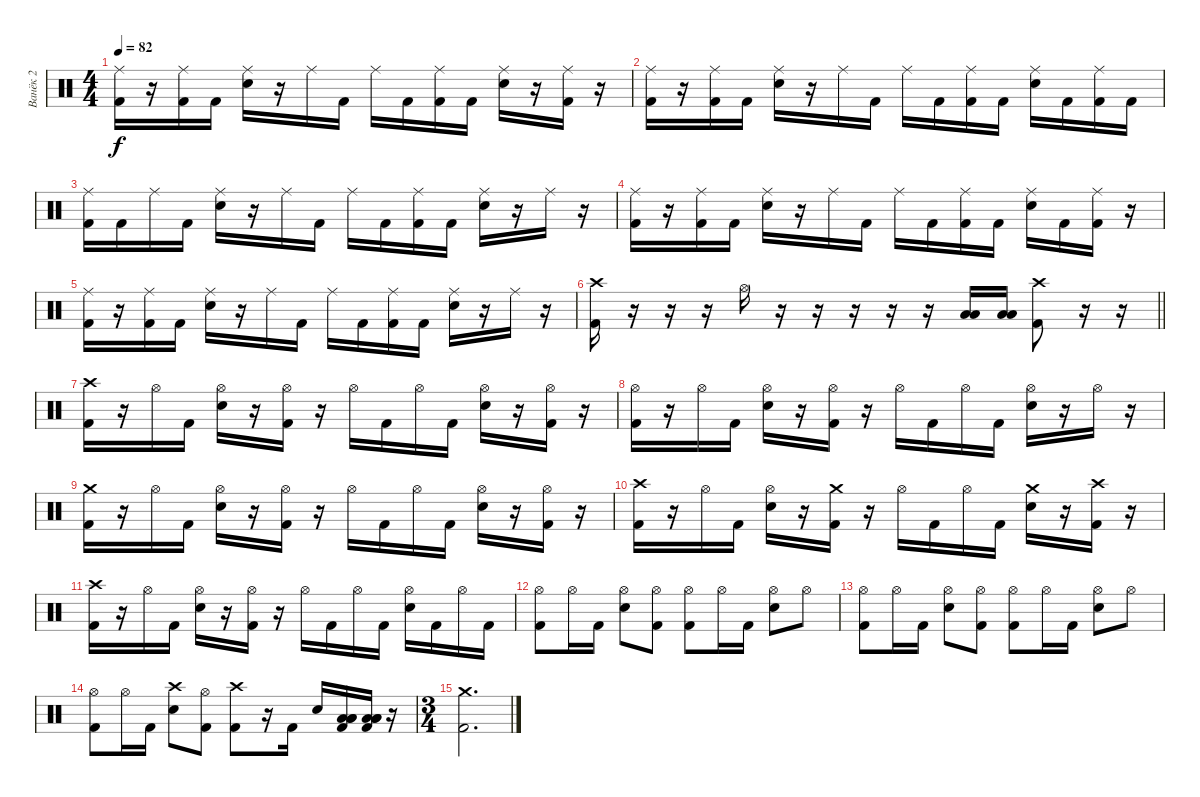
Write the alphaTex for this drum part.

\track ("Ванёк 2" "Ванёк 2") {instrument percussion}
\staff {score}
\articulation defaults
\ts (4 4)
\tempo 82
\clef neutral
\ks c
("Ride (middle)" "Kick (hit) 2").16{dy f} r.16 ("Ride (middle)" "Kick (hit) 2").16 "Kick (hit) 2".16 ("Ride (middle)" "Snare (hit) 2").16 r.16 "Ride (middle)".16 "Kick (hit) 2".16 "Ride (middle)".16 "Kick (hit) 2".16 ("Ride (middle)" "Kick (hit) 2").16 "Kick (hit) 2".16 ("Ride (middle)" "Snare (hit) 2").16 r.16 ("Ride (middle)" "Kick (hit) 2").16 r.16 |
("Ride (middle)" "Kick (hit) 2").16 r.16 ("Ride (middle)" "Kick (hit) 2").16 "Kick (hit) 2".16 ("Ride (middle)" "Snare (hit) 2").16 r.16 "Ride (middle)".16 "Kick (hit) 2".16 "Ride (middle)".16 "Kick (hit) 2".16 ("Ride (middle)" "Kick (hit) 2").16 "Kick (hit) 2".16 ("Ride (middle)" "Snare (hit) 2").16 "Kick (hit) 2".16 ("Ride (middle)" "Kick (hit) 2").16 "Kick (hit) 2".16 |
("Ride (middle)" "Kick (hit) 2").16 "Kick (hit) 2".16 "Ride (middle)".16 "Kick (hit) 2".16 ("Ride (middle)" "Snare (hit) 2").16 r.16 "Ride (middle)".16 "Kick (hit) 2".16 "Ride (middle)".16 "Kick (hit) 2".16 ("Ride (middle)" "Kick (hit) 2").16 "Kick (hit) 2".16 ("Ride (middle)" "Snare (hit) 2").16 r.16 "Ride (middle)".16 r.16 |
("Ride (middle)" "Kick (hit) 2").16 r.16 ("Ride (middle)" "Kick (hit) 2").16 "Kick (hit) 2".16 ("Ride (middle)" "Snare (hit) 2").16 r.16 "Ride (middle)".16 "Kick (hit) 2".16 "Ride (middle)".16 "Kick (hit) 2".16 ("Ride (middle)" "Kick (hit) 2").16 "Kick (hit) 2".16 ("Ride (middle)" "Snare (hit) 2").16 "Kick (hit) 2".16 ("Ride (middle)" "Kick (hit) 2").16 r.16 |
("Ride (middle)" "Kick (hit) 2").16 r.16 ("Ride (middle)" "Kick (hit) 2").16 "Kick (hit) 2".16 ("Ride (middle)" "Snare (hit) 2").16 r.16 "Ride (middle)".16 "Kick (hit) 2".16 "Ride (middle)".16 "Kick (hit) 2".16 ("Ride (middle)" "Kick (hit) 2").16 "Kick (hit) 2".16 ("Ride (middle)" "Snare (hit) 2").16 r.16 "Ride (middle)".16 r.16 |
\barLineRight lightlight
("Crash high (hit)" "Kick (hit) 2").16 r.16 r.16 r.16 "Hi-Hat (open)".16 r.16 r.16 r.16 r.16 r.16 ("Low Tom (hit)" "Low Tom (hit)").16 ("Low Tom (hit)" "Low Tom (hit)").16 ("Crash high (hit)" "Kick (hit) 2").8 r.16 r.16 |
("Crash high (hit)" "Kick (hit) 2").16 r.16 "Hi-Hat (open)".16 "Kick (hit) 2".16 ("Hi-Hat (open)" "Snare (hit) 2").16 r.16 ("Hi-Hat (open)" "Kick (hit) 2").16 r.16 "Hi-Hat (open)".16 "Kick (hit) 2".16 "Hi-Hat (open)".16 "Kick (hit) 2".16 ("Hi-Hat (open)" "Snare (hit) 2").16 r.16 ("Hi-Hat (open)" "Kick (hit) 2").16 r.16 |
("Hi-Hat (open)" "Kick (hit) 2").16 r.16 "Hi-Hat (open)".16 "Kick (hit) 2".16 ("Hi-Hat (open)" "Snare (hit) 2").16 r.16 ("Hi-Hat (open)" "Kick (hit) 2").16 r.16 "Hi-Hat (open)".16 "Kick (hit) 2".16 "Hi-Hat (open)".16 "Kick (hit) 2".16 ("Hi-Hat (open)" "Snare (hit) 2").16 r.16 "Hi-Hat (open)".16 r.16 |
("Crash medium (hit)" "Kick (hit) 2").16 r.16 "Hi-Hat (open)".16 "Kick (hit) 2".16 ("Hi-Hat (open)" "Snare (hit) 2").16 r.16 ("Hi-Hat (open)" "Kick (hit) 2").16 r.16 "Hi-Hat (open)".16 "Kick (hit) 2".16 "Hi-Hat (open)".16 "Kick (hit) 2".16 ("Hi-Hat (open)" "Snare (hit) 2").16 r.16 ("Hi-Hat (open)" "Kick (hit) 2").16 r.16 |
("Crash high (hit)" "Kick (hit) 2").16 r.16 "Hi-Hat (open)".16 "Kick (hit) 2".16 ("Hi-Hat (open)" "Snare (hit) 2").16 r.16 ("Crash medium (hit)" "Kick (hit) 2").16 r.16 "Hi-Hat (open)".16 "Kick (hit) 2".16 "Hi-Hat (open)".16 "Kick (hit) 2".16 ("Crash medium (hit)" "Snare (hit) 2").16 r.16 ("Crash high (hit)" "Kick (hit) 2").16 r.16 |
("Crash high (hit)" "Kick (hit) 2").16 r.16 "Hi-Hat (open)".16 "Kick (hit) 2".16 ("Hi-Hat (open)" "Snare (hit) 2").16 r.16 ("Hi-Hat (open)" "Kick (hit) 2").16 r.16 "Hi-Hat (open)".16 "Kick (hit) 2".16 "Hi-Hat (open)".16 "Kick (hit) 2".16 ("Hi-Hat (open)" "Snare (hit) 2").16 "Kick (hit) 2".16 "Hi-Hat (open)".16 "Kick (hit) 2".16 |
("Hi-Hat (open)" "Kick (hit) 2").8 "Hi-Hat (open)".16 "Kick (hit) 2".16 ("Hi-Hat (open)" "Snare (hit) 2").8 ("Hi-Hat (open)" "Kick (hit) 2").8 ("Hi-Hat (open)" "Kick (hit) 2").8 "Hi-Hat (open)".16 "Kick (hit) 2".16 ("Hi-Hat (open)" "Snare (hit) 2").8 "Hi-Hat (open)".8 |
("Hi-Hat (open)" "Kick (hit) 2").8 "Hi-Hat (open)".16 "Kick (hit) 2".16 ("Hi-Hat (open)" "Snare (hit) 2").8 ("Hi-Hat (open)" "Kick (hit) 2").8 ("Hi-Hat (open)" "Kick (hit) 2").8 "Hi-Hat (open)".16 "Kick (hit) 2".16 ("Hi-Hat (open)" "Snare (hit) 2").8 "Hi-Hat (open)".8 |
("Hi-Hat (open)" "Kick (hit) 2").8 "Hi-Hat (open)".16 "Kick (hit) 2".16 ("Crash high (hit)" "Snare (hit) 2").8 ("Hi-Hat (open)" "Kick (hit) 2").8 ("Crash high (hit)" "Kick (hit) 2").8 r.16 "Kick (hit) 2".16 "Snare (hit) 2".16 ("Low Tom (hit)" "Low Tom (hit)" "Low Floor Tom (hit)" "Kick (hit) 2").16 ("Low Tom (hit)" "Low Tom (hit)" "Low Floor Tom (hit)" "Kick (hit) 2").16 r.16 |
\ts (3 4)
("Kick (hit) 2" "Crash medium (hit)").2{d}
